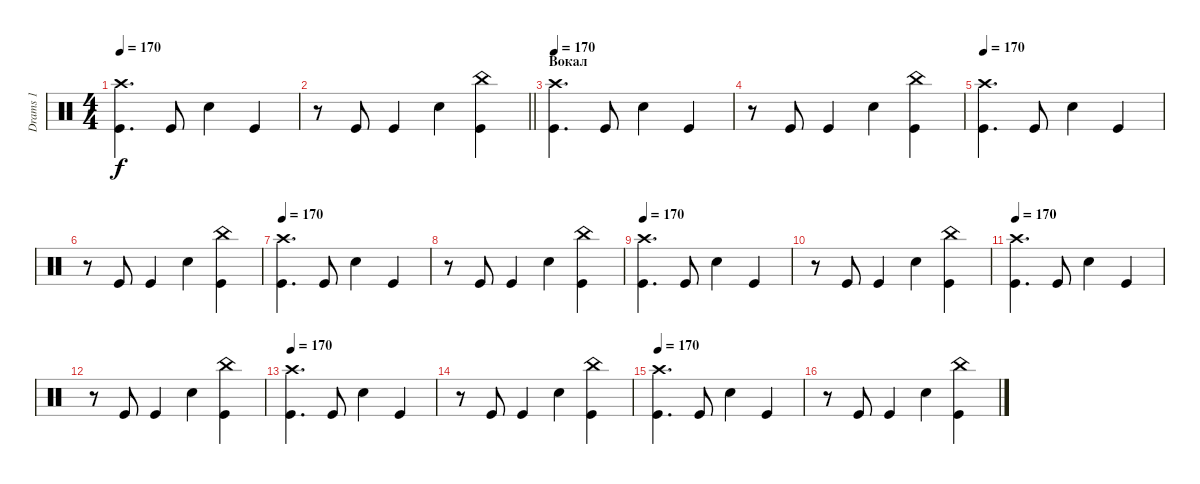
\track ("Drams 1" "Drams 1") {instrument percussion}
\staff {score}
\articulation defaults
\ts (4 4)
\tempo 170
\clef neutral
\ks c
("Crash high (hit)" "Kick (hit)").4{d dy f} "Kick (hit)".8 "Snare (hit) 2".4 "Kick (hit)".4 |
\barLineRight lightlight
r.8 "Kick (hit)".8 "Kick (hit)".4 "Snare (hit) 2".4 ("Kick (hit)" "China (hit)").4 |
\section ("" "Вокал")
\tempo 170
("Crash high (hit)" "Kick (hit)").4{d} "Kick (hit)".8 "Snare (hit) 2".4 "Kick (hit)".4 |
r.8 "Kick (hit)".8 "Kick (hit)".4 "Snare (hit) 2".4 ("Kick (hit)" "China (hit)").4 |
\tempo 170
("Crash high (hit)" "Kick (hit)").4{d} "Kick (hit)".8 "Snare (hit) 2".4 "Kick (hit)".4 |
r.8 "Kick (hit)".8 "Kick (hit)".4 "Snare (hit) 2".4 ("Kick (hit)" "China (hit)").4 |
\tempo 170
("Crash high (hit)" "Kick (hit)").4{d} "Kick (hit)".8 "Snare (hit) 2".4 "Kick (hit)".4 |
r.8 "Kick (hit)".8 "Kick (hit)".4 "Snare (hit) 2".4 ("Kick (hit)" "China (hit)").4 |
\tempo 170
("Crash high (hit)" "Kick (hit)").4{d} "Kick (hit)".8 "Snare (hit) 2".4 "Kick (hit)".4 |
r.8 "Kick (hit)".8 "Kick (hit)".4 "Snare (hit) 2".4 ("Kick (hit)" "China (hit)").4 |
\tempo 170
("Crash high (hit)" "Kick (hit)").4{d} "Kick (hit)".8 "Snare (hit) 2".4 "Kick (hit)".4 |
r.8 "Kick (hit)".8 "Kick (hit)".4 "Snare (hit) 2".4 ("Kick (hit)" "China (hit)").4 |
\tempo 170
("Crash high (hit)" "Kick (hit)").4{d} "Kick (hit)".8 "Snare (hit) 2".4 "Kick (hit)".4 |
r.8 "Kick (hit)".8 "Kick (hit)".4 "Snare (hit) 2".4 ("Kick (hit)" "China (hit)").4 |
\tempo 170
("Crash high (hit)" "Kick (hit)").4{d} "Kick (hit)".8 "Snare (hit) 2".4 "Kick (hit)".4 |
r.8 "Kick (hit)".8 "Kick (hit)".4 "Snare (hit) 2".4 ("Kick (hit)" "China (hit)").4
